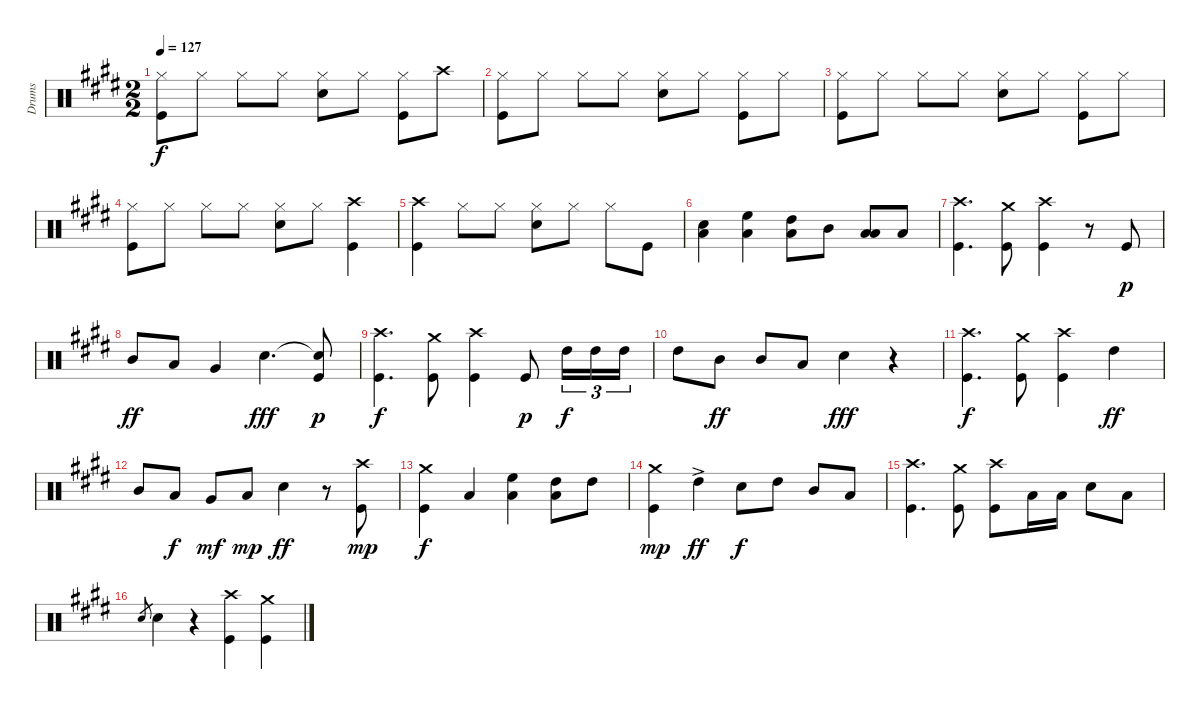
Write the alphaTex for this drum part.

\track ("Drums" "Drums") {solo instrument percussion}
\staff {score}
\articulation defaults
\ts (2 2)
\tempo 127
\clef neutral
\ks e
("Hi-Hat (closed)" "Kick (hit)").8{dy f} "Hi-Hat (closed)".8 "Hi-Hat (closed)".8 "Hi-Hat (closed)".8 ("Hi-Hat (closed)" "Snare (hit) 2").8 "Hi-Hat (closed)".8 ("Hi-Hat (closed)" "Kick (hit)").8 "Crash high (hit)".8 |
("Hi-Hat (closed)" "Kick (hit)").8 "Hi-Hat (closed)".8 "Hi-Hat (closed)".8 "Hi-Hat (closed)".8 ("Hi-Hat (closed)" "Snare (hit) 2").8 "Hi-Hat (closed)".8 ("Hi-Hat (closed)" "Kick (hit)").8 "Hi-Hat (closed)".8 |
("Hi-Hat (closed)" "Kick (hit)").8 "Hi-Hat (closed)".8 "Hi-Hat (closed)".8 "Hi-Hat (closed)".8 ("Hi-Hat (closed)" "Snare (hit) 2").8 "Hi-Hat (closed)".8 ("Hi-Hat (closed)" "Kick (hit)").8 "Hi-Hat (closed)".8 |
("Hi-Hat (closed)" "Kick (hit)").8 "Hi-Hat (closed)".8 "Hi-Hat (closed)".8 "Hi-Hat (closed)".8 ("Hi-Hat (closed)" "Snare (hit) 2").8 "Hi-Hat (closed)".8 ("Crash high (hit)" "Kick (hit)").4 |
("Crash high (hit)" "Kick (hit)").4 "Hi-Hat (closed)".8 "Hi-Hat (closed)".8 ("Hi-Hat (closed)" "Snare (hit) 2").8 "Hi-Hat (closed)".8 "Hi-Hat (closed)".8 "Kick (hit)".8 |
("Snare (hit) 2" "Low Floor Tom (hit)").4 ("High Floor Tom (hit)" "Low Floor Tom (hit)").4 ("High Tom (hit)" "Low Floor Tom (hit)").8 "Mid Tom (hit)".8 ("Low Tom (hit)" "Low Floor Tom (hit)").8 "Low Tom (hit)".8 |
("Crash high (hit)" "Kick (hit)").4{d} ("Crash medium (hit)" "Kick (hit)").8 ("Crash high (hit)" "Kick (hit)").4 r.8 "Kick (hit)".8{dy p} |
"Mid Tom (hit)".8{dy ff} "Low Tom (hit)".8 "Very Low Tom (hit)".4 "Snare (hit) 2".4{d dy fff} ("Snare (hit)"{t} "Kick (hit)").8{dy p} |
("Crash high (hit)" "Kick (hit)").4{d dy f} ("Crash medium (hit)" "Kick (hit)").8 ("Crash high (hit)" "Kick (hit)").4 "Kick (hit)".8{dy p} "High Tom (hit)".16{tu (3 2) dy f} "High Tom (hit)".16{tu (3 2)} "High Tom (hit)".16{tu (3 2)} |
"High Tom (hit)".8 "Mid Tom (hit)".8{dy ff} "Mid Tom (hit)".8 "Low Tom (hit)".8 "Snare (hit) 2".4{dy fff} r.4 |
("Crash high (hit)" "Kick (hit)").4{d dy f} ("Crash medium (hit)" "Kick (hit)").8 ("Crash high (hit)" "Kick (hit)").4 "High Tom (hit)".4{dy ff} |
"Mid Tom (hit)".8 "Low Tom (hit)".8{dy f} "Very Low Tom (hit)".8{dy mf} "Low Floor Tom (hit)".8{dy mp} "Snare (hit) 2".4{dy ff} r.8 ("Crash high (hit)" "Kick (hit)").8{dy mp} |
("Crash medium (hit)" "Kick (hit)").4{dy f} "Low Floor Tom (hit)".4 ("High Floor Tom (hit)" "Low Floor Tom (hit)").4 ("High Tom (hit)" "Low Floor Tom (hit)").8 "High Tom (hit)".8 |
("Crash medium (hit)" "Kick (hit)").4{dy mp} "High Tom (hit)"{ac}.4{dy ff} "Snare (hit) 2".8{dy f} "High Tom (hit)".8 "Mid Tom (hit)".8 "Low Tom (hit)".8 |
("Crash high (hit)" "Kick (hit)").4{d} ("Crash medium (hit)" "Kick (hit)").8 ("Crash high (hit)" "Kick (hit)").8 "Low Floor Tom (hit)".16 "Low Floor Tom (hit)".16 "Snare (hit) 2".8 "Low Floor Tom (hit)".8 |
"Snare (hit) 2".8{gr} "Snare (hit) 2".4 r.4 ("Crash high (hit)" "Kick (hit)").4 ("Crash medium (hit)" "Kick (hit)").4
